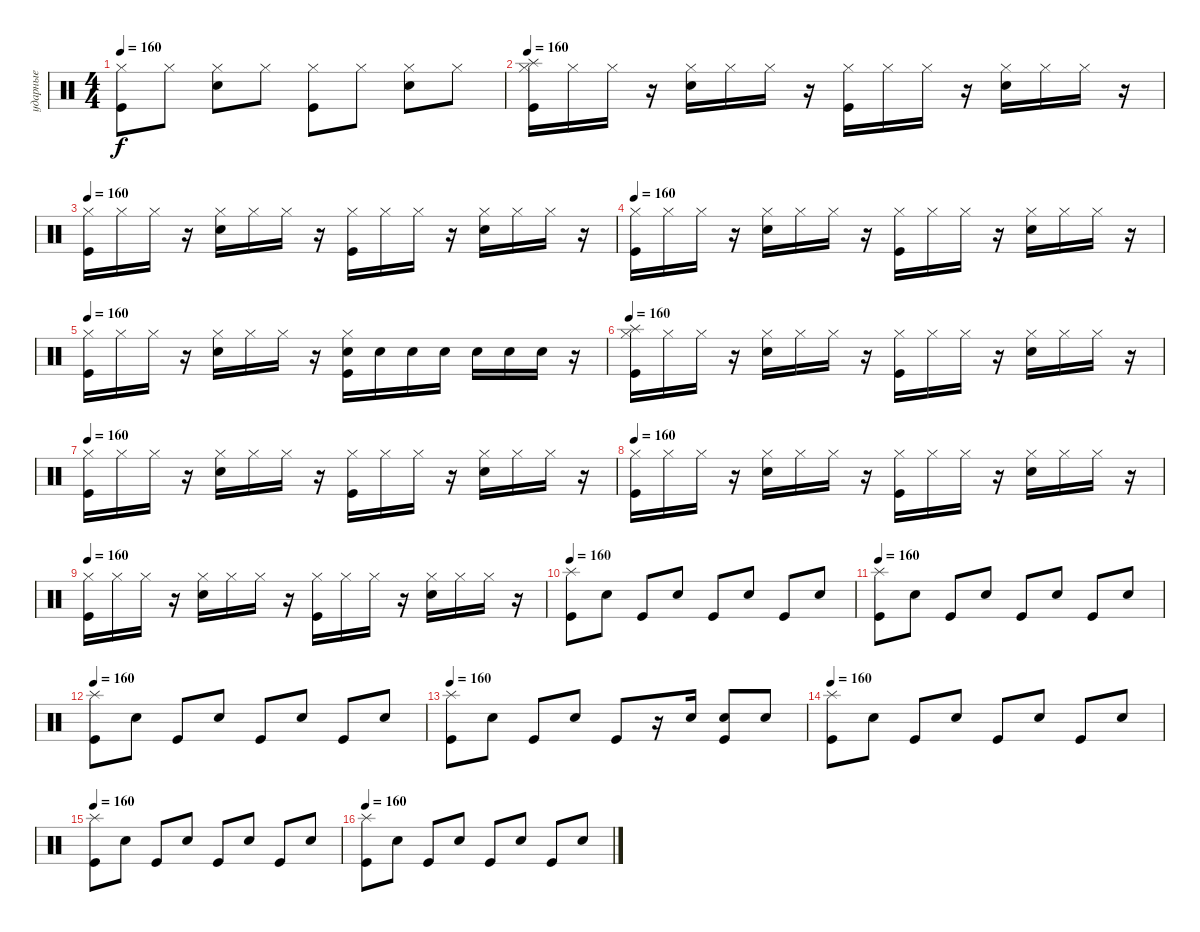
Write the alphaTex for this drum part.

\track ("ударные" "ударные") {instrument percussion}
\staff {score}
\articulation defaults
\ts (4 4)
\tempo 160
\clef neutral
\ks c
("Hi-Hat (closed)" "Kick (hit)").8{dy f} "Hi-Hat (closed)".8 ("Hi-Hat (closed)" "Electric Snare (hit)").8 "Hi-Hat (closed)".8 ("Kick (hit)" "Hi-Hat (closed)").8 "Hi-Hat (closed)".8 ("Electric Snare (hit)" "Hi-Hat (closed)").8 "Hi-Hat (closed)".8 |
\tempo 160
("Splash (hit)" "Kick (hit)" "Hi-Hat (closed)").16 "Hi-Hat (closed)".16 "Hi-Hat (closed)".16 r.16 ("Hi-Hat (closed)" "Electric Snare (hit)").16 "Hi-Hat (closed)".16 "Hi-Hat (closed)".16 r.16 ("Kick (hit)" "Hi-Hat (closed)").16 "Hi-Hat (closed)".16 "Hi-Hat (closed)".16 r.16 ("Electric Snare (hit)" "Hi-Hat (closed)").16 "Hi-Hat (closed)".16 "Hi-Hat (closed)".16 r.16 |
\tempo 160
("Kick (hit)" "Hi-Hat (closed)").16 "Hi-Hat (closed)".16 "Hi-Hat (closed)".16 r.16 ("Hi-Hat (closed)" "Electric Snare (hit)").16 "Hi-Hat (closed)".16 "Hi-Hat (closed)".16 r.16 ("Hi-Hat (closed)" "Kick (hit)").16 "Hi-Hat (closed)".16 "Hi-Hat (closed)".16 r.16 ("Hi-Hat (closed)" "Electric Snare (hit)").16 "Hi-Hat (closed)".16 "Hi-Hat (closed)".16 r.16 |
\tempo 160
("Kick (hit)" "Hi-Hat (closed)").16 "Hi-Hat (closed)".16 "Hi-Hat (closed)".16 r.16 ("Hi-Hat (closed)" "Electric Snare (hit)").16 "Hi-Hat (closed)".16 "Hi-Hat (closed)".16 r.16 ("Hi-Hat (closed)" "Kick (hit)").16 "Hi-Hat (closed)".16 "Hi-Hat (closed)".16 r.16 ("Hi-Hat (closed)" "Electric Snare (hit)").16 "Hi-Hat (closed)".16 "Hi-Hat (closed)".16 r.16 |
\tempo 160
("Kick (hit)" "Hi-Hat (closed)").16 "Hi-Hat (closed)".16 "Hi-Hat (closed)".16 r.16 ("Hi-Hat (closed)" "Electric Snare (hit)").16 "Hi-Hat (closed)".16 "Hi-Hat (closed)".16 r.16 ("Hi-Hat (closed)" "Electric Snare (hit)" "Kick (hit)").16 "Electric Snare (hit)".16 "Electric Snare (hit)".16 "Electric Snare (hit)".16 "Snare (hit) 2".16 "Snare (hit) 2".16 "Snare (hit) 2".16 r.16 |
\tempo 160
("Splash (hit)" "Kick (hit)" "Hi-Hat (closed)").16 "Hi-Hat (closed)".16 "Hi-Hat (closed)".16 r.16 ("Hi-Hat (closed)" "Electric Snare (hit)").16 "Hi-Hat (closed)".16 "Hi-Hat (closed)".16 r.16 ("Kick (hit)" "Hi-Hat (closed)").16 "Hi-Hat (closed)".16 "Hi-Hat (closed)".16 r.16 ("Electric Snare (hit)" "Hi-Hat (closed)").16 "Hi-Hat (closed)".16 "Hi-Hat (closed)".16 r.16 |
\tempo 160
("Kick (hit)" "Hi-Hat (closed)").16 "Hi-Hat (closed)".16 "Hi-Hat (closed)".16 r.16 ("Hi-Hat (closed)" "Electric Snare (hit)").16 "Hi-Hat (closed)".16 "Hi-Hat (closed)".16 r.16 ("Hi-Hat (closed)" "Kick (hit)").16 "Hi-Hat (closed)".16 "Hi-Hat (closed)".16 r.16 ("Hi-Hat (closed)" "Electric Snare (hit)").16 "Hi-Hat (closed)".16 "Hi-Hat (closed)".16 r.16 |
\tempo 160
("Kick (hit)" "Hi-Hat (closed)").16 "Hi-Hat (closed)".16 "Hi-Hat (closed)".16 r.16 ("Hi-Hat (closed)" "Electric Snare (hit)").16 "Hi-Hat (closed)".16 "Hi-Hat (closed)".16 r.16 ("Hi-Hat (closed)" "Kick (hit)").16 "Hi-Hat (closed)".16 "Hi-Hat (closed)".16 r.16 ("Hi-Hat (closed)" "Electric Snare (hit)").16 "Hi-Hat (closed)".16 "Hi-Hat (closed)".16 r.16 |
\tempo 160
("Kick (hit)" "Hi-Hat (closed)").16 "Hi-Hat (closed)".16 "Hi-Hat (closed)".16 r.16 ("Hi-Hat (closed)" "Electric Snare (hit)").16 "Hi-Hat (closed)".16 "Hi-Hat (closed)".16 r.16 ("Hi-Hat (closed)" "Kick (hit)").16 "Hi-Hat (closed)".16 "Hi-Hat (closed)".16 r.16 ("Hi-Hat (closed)" "Electric Snare (hit)").16 "Hi-Hat (closed)".16 "Hi-Hat (closed)".16 r.16 |
\tempo 160
("Splash (hit)" "Kick (hit)").8 "Electric Snare (hit)".8 "Kick (hit)".8 "Electric Snare (hit)".8 "Kick (hit)".8 "Electric Snare (hit)".8 "Kick (hit)".8 "Electric Snare (hit)".8 |
\tempo 160
("Splash (hit)" "Kick (hit)").8 "Electric Snare (hit)".8 "Kick (hit)".8 "Electric Snare (hit)".8 "Kick (hit)".8 "Electric Snare (hit)".8 "Kick (hit)".8 "Electric Snare (hit)".8 |
\tempo 160
("Splash (hit)" "Kick (hit)").8 "Electric Snare (hit)".8 "Kick (hit)".8 "Electric Snare (hit)".8 "Kick (hit)".8 "Electric Snare (hit)".8 "Kick (hit)".8 "Electric Snare (hit)".8 |
\tempo 160
("Splash (hit)" "Kick (hit)").8 "Electric Snare (hit)".8 "Kick (hit)".8 "Electric Snare (hit)".8 "Kick (hit)".8 r.16 "Electric Snare (hit)".16 ("Electric Snare (hit)" "Kick (hit)").8 "Electric Snare (hit)".8 |
\tempo 160
("Splash (hit)" "Kick (hit)").8 "Electric Snare (hit)".8 "Kick (hit)".8 "Electric Snare (hit)".8 "Kick (hit)".8 "Electric Snare (hit)".8 "Kick (hit)".8 "Electric Snare (hit)".8 |
\tempo 160
("Splash (hit)" "Kick (hit)").8 "Electric Snare (hit)".8 "Kick (hit)".8 "Electric Snare (hit)".8 "Kick (hit)".8 "Electric Snare (hit)".8 "Kick (hit)".8 "Electric Snare (hit)".8 |
\tempo 160
("Splash (hit)" "Kick (hit)").8 "Electric Snare (hit)".8 "Kick (hit)".8 "Electric Snare (hit)".8 "Kick (hit)".8 "Electric Snare (hit)".8 "Kick (hit)".8 "Electric Snare (hit)".8
